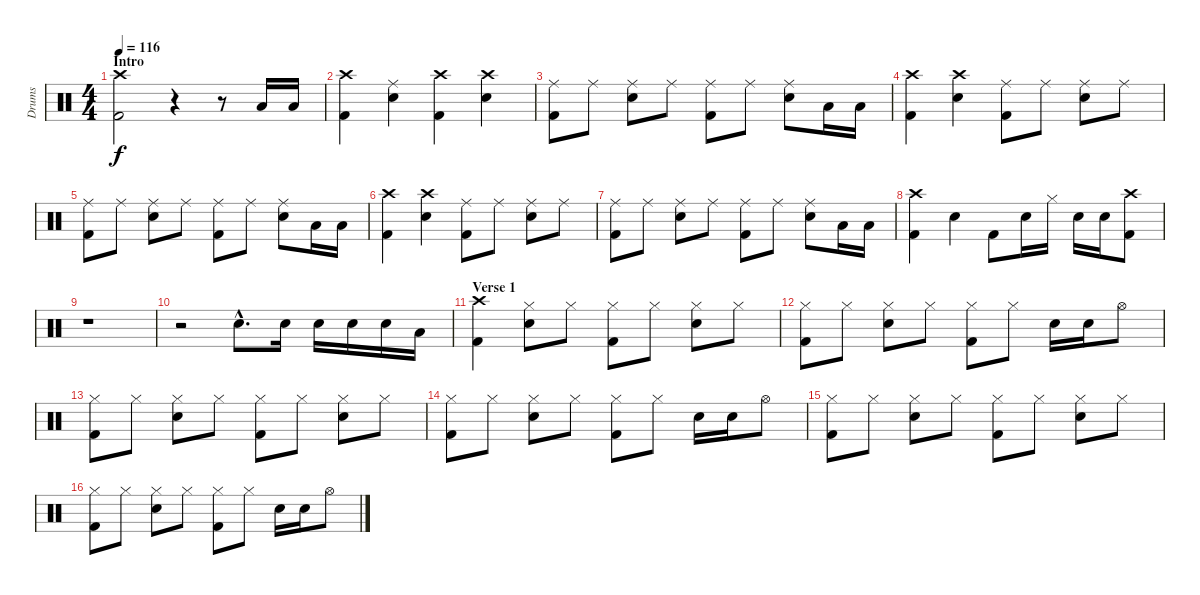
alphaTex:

\track ("Drums" "Drums") {instrument percussion}
\staff {score}
\articulation defaults
\ts (4 4)
\section ("" "Intro")
\tempo 116
\clef neutral
\ks c
("Crash high (hit)" "Kick (hit) 2").2{dy f} r.4 r.8 "Low Tom (hit)".16 "Low Tom (hit)".16 |
("Crash high (hit)" "Kick (hit) 2").4 ("Ride (middle)" "Snare (hit) 2").4 ("Crash high (hit)" "Kick (hit) 2").4 ("Crash high (hit)" "Snare (hit) 2").4 |
("Ride (middle)" "Kick (hit) 2").8 "Ride (middle)".8 ("Ride (middle)" "Snare (hit) 2").8 "Ride (middle)".8 ("Ride (middle)" "Kick (hit) 2").8 "Ride (middle)".8 ("Ride (middle)" "Snare (hit) 2").8 "Low Tom (hit)".16 "Low Tom (hit)".16 |
("Crash high (hit)" "Kick (hit) 2").4 ("Crash high (hit)" "Snare (hit) 2").4 ("Ride (middle)" "Kick (hit) 2").8 "Ride (middle)".8 ("Ride (middle)" "Snare (hit) 2").8 "Ride (middle)".8 |
("Ride (middle)" "Kick (hit) 2").8 "Ride (middle)".8 ("Ride (middle)" "Snare (hit) 2").8 "Ride (middle)".8 ("Ride (middle)" "Kick (hit) 2").8 "Ride (middle)".8 ("Ride (middle)" "Snare (hit) 2").8 "Low Tom (hit)".16 "Low Tom (hit)".16 |
("Crash high (hit)" "Kick (hit) 2").4 ("Crash high (hit)" "Snare (hit) 2").4 ("Ride (middle)" "Kick (hit) 2").8 "Ride (middle)".8 ("Ride (middle)" "Snare (hit) 2").8 "Ride (middle)".8 |
("Ride (middle)" "Kick (hit) 2").8 "Ride (middle)".8 ("Ride (middle)" "Snare (hit) 2").8 "Ride (middle)".8 ("Ride (middle)" "Kick (hit) 2").8 "Ride (middle)".8 ("Ride (middle)" "Snare (hit) 2").8 "Low Tom (hit)".16 "Low Tom (hit)".16 |
("Crash high (hit)" "Kick (hit) 2").4 "Snare (hit) 2".4 "Kick (hit) 2".8 "Snare (hit) 2".16 "Hi-Hat (closed)".16 "Snare (hit) 2".16 "Snare (hit) 2".16 ("Crash high (hit)" "Kick (hit) 2").8 |
r.1 |
r.2 "Snare (hit) 2"{hac}.8{d} "Snare (hit) 2".16 "Snare (hit) 2".16 "Snare (hit) 2".16 "Snare (hit) 2".16 "Low Tom (hit)".16 |
\section ("" "Verse 1")
("Crash high (hit)" "Kick (hit) 2").4 ("Hi-Hat (closed)" "Snare (hit) 2").8 "Hi-Hat (closed)".8 ("Hi-Hat (closed)" "Kick (hit) 2").8 "Hi-Hat (closed)".8 ("Hi-Hat (closed)" "Snare (hit) 2").8 "Hi-Hat (closed)".8 |
("Hi-Hat (closed)" "Kick (hit) 2").8 "Hi-Hat (closed)".8 ("Hi-Hat (closed)" "Snare (hit) 2").8 "Hi-Hat (closed)".8 ("Hi-Hat (closed)" "Kick (hit) 2").8 "Hi-Hat (closed)".8 "Snare (hit) 2".16 "Snare (hit) 2".16 "Hi-Hat (open)".8 |
("Hi-Hat (closed)" "Kick (hit) 2").8 "Hi-Hat (closed)".8 ("Hi-Hat (closed)" "Snare (hit) 2").8 "Hi-Hat (closed)".8 ("Hi-Hat (closed)" "Kick (hit) 2").8 "Hi-Hat (closed)".8 ("Hi-Hat (closed)" "Snare (hit) 2").8 "Hi-Hat (closed)".8 |
("Hi-Hat (closed)" "Kick (hit) 2").8 "Hi-Hat (closed)".8 ("Hi-Hat (closed)" "Snare (hit) 2").8 "Hi-Hat (closed)".8 ("Hi-Hat (closed)" "Kick (hit) 2").8 "Hi-Hat (closed)".8 "Snare (hit) 2".16 "Snare (hit) 2".16 "Hi-Hat (open)".8 |
("Hi-Hat (closed)" "Kick (hit) 2").8 "Hi-Hat (closed)".8 ("Hi-Hat (closed)" "Snare (hit) 2").8 "Hi-Hat (closed)".8 ("Hi-Hat (closed)" "Kick (hit) 2").8 "Hi-Hat (closed)".8 ("Hi-Hat (closed)" "Snare (hit) 2").8 "Hi-Hat (closed)".8 |
("Hi-Hat (closed)" "Kick (hit) 2").8 "Hi-Hat (closed)".8 ("Hi-Hat (closed)" "Snare (hit) 2").8 "Hi-Hat (closed)".8 ("Hi-Hat (closed)" "Kick (hit) 2").8 "Hi-Hat (closed)".8 "Snare (hit) 2".16 "Snare (hit) 2".16 "Hi-Hat (open)".8
